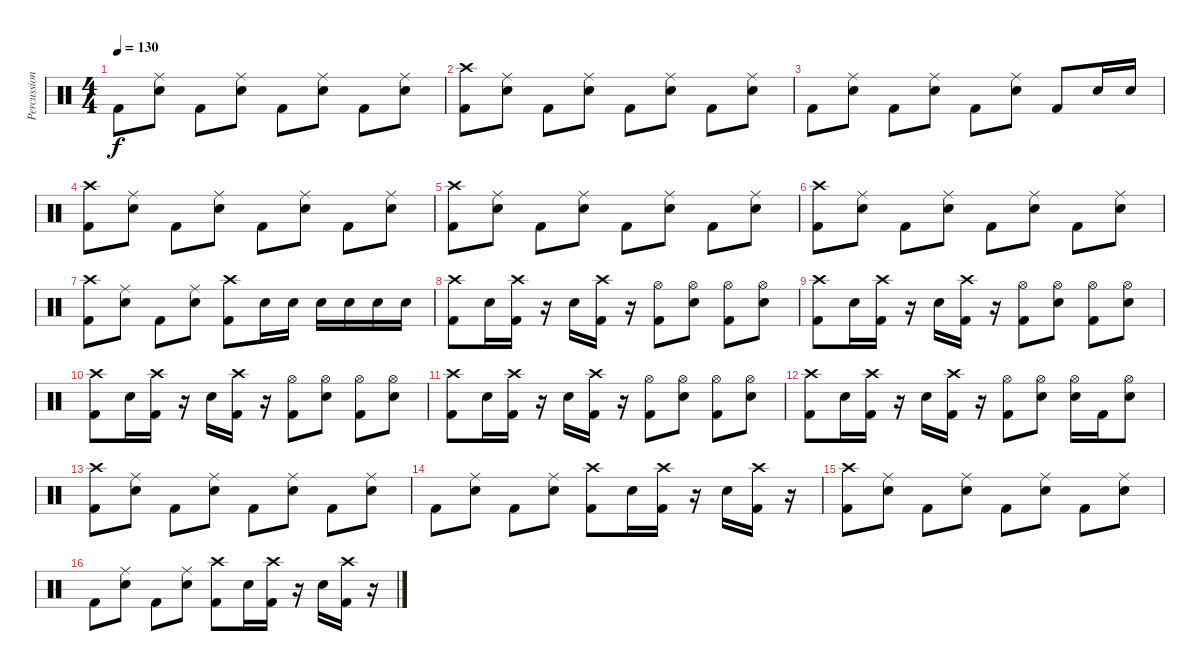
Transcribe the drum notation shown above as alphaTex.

\track ("Percussion" "Percussion") {instrument percussion}
\staff {score}
\articulation defaults
\ts (4 4)
\tempo 130
\clef neutral
\ks c "Kick (hit) 2".8{dy f}
("Ride (middle)" "Snare (hit) 2").8 "Kick (hit) 2".8 ("Ride (middle)" "Snare (hit) 2").8 "Kick (hit) 2".8 ("Ride (middle)" "Snare (hit) 2").8 "Kick (hit) 2".8 ("Ride (middle)" "Snare (hit) 2").8 |
("Crash high (hit)" "Kick (hit) 2").8 ("Ride (middle)" "Snare (hit) 2").8 "Kick (hit) 2".8 ("Ride (middle)" "Snare (hit) 2").8 "Kick (hit) 2".8 ("Ride (middle)" "Snare (hit) 2").8 "Kick (hit) 2".8 ("Ride (middle)" "Snare (hit) 2").8 |
"Kick (hit) 2".8 ("Ride (middle)" "Snare (hit) 2").8 "Kick (hit) 2".8 ("Ride (middle)" "Snare (hit) 2").8 "Kick (hit) 2".8 ("Ride (middle)" "Snare (hit) 2").8 "Kick (hit) 2".8 "Snare (hit) 2".16 "Snare (hit) 2".16 |
("Crash high (hit)" "Kick (hit) 2").8 ("Ride (middle)" "Snare (hit) 2").8 "Kick (hit) 2".8 ("Ride (middle)" "Snare (hit) 2").8 "Kick (hit) 2".8 ("Ride (middle)" "Snare (hit) 2").8 "Kick (hit) 2".8 ("Ride (middle)" "Snare (hit) 2").8 |
("Crash high (hit)" "Kick (hit) 2").8 ("Ride (middle)" "Snare (hit) 2").8 "Kick (hit) 2".8 ("Ride (middle)" "Snare (hit) 2").8 "Kick (hit) 2".8 ("Ride (middle)" "Snare (hit) 2").8 "Kick (hit) 2".8 ("Ride (middle)" "Snare (hit) 2").8 |
("Crash high (hit)" "Kick (hit) 2").8 ("Ride (middle)" "Snare (hit) 2").8 "Kick (hit) 2".8 ("Ride (middle)" "Snare (hit) 2").8 "Kick (hit) 2".8 ("Ride (middle)" "Snare (hit) 2").8 "Kick (hit) 2".8 ("Ride (middle)" "Snare (hit) 2").8 |
("Crash high (hit)" "Kick (hit) 2").8 ("Ride (middle)" "Snare (hit) 2").8 "Kick (hit) 2".8 ("Ride (middle)" "Snare (hit) 2").8 ("Crash high (hit)" "Kick (hit) 2").8 "Snare (hit) 2".16 "Snare (hit) 2".16 "Snare (hit) 2".16 "Snare (hit) 2".16 "Snare (hit) 2".16 "Snare (hit) 2".16 |
("Crash high (hit)" "Kick (hit) 2").8 "Snare (hit) 2".16 ("Crash high (hit)" "Kick (hit) 2").16 r.16 "Snare (hit) 2".16 ("Crash high (hit)" "Kick (hit) 2").16 r.16 ("Hi-Hat (open)" "Kick (hit) 2").8 ("Hi-Hat (open)" "Snare (hit) 2").8 ("Hi-Hat (open)" "Kick (hit) 2").8 ("Hi-Hat (open)" "Snare (hit) 2").8 |
("Crash high (hit)" "Kick (hit) 2").8 "Snare (hit) 2".16 ("Crash high (hit)" "Kick (hit) 2").16 r.16 "Snare (hit) 2".16 ("Crash high (hit)" "Kick (hit) 2").16 r.16 ("Hi-Hat (open)" "Kick (hit) 2").8 ("Hi-Hat (open)" "Snare (hit) 2").8 ("Hi-Hat (open)" "Kick (hit) 2").8 ("Hi-Hat (open)" "Snare (hit) 2").8 |
("Crash high (hit)" "Kick (hit) 2").8 "Snare (hit) 2".16 ("Crash high (hit)" "Kick (hit) 2").16 r.16 "Snare (hit) 2".16 ("Crash high (hit)" "Kick (hit) 2").16 r.16 ("Hi-Hat (open)" "Kick (hit) 2").8 ("Hi-Hat (open)" "Snare (hit) 2").8 ("Hi-Hat (open)" "Kick (hit) 2").8 ("Hi-Hat (open)" "Snare (hit) 2").8 |
("Crash high (hit)" "Kick (hit) 2").8 "Snare (hit) 2".16 ("Crash high (hit)" "Kick (hit) 2").16 r.16 "Snare (hit) 2".16 ("Crash high (hit)" "Kick (hit) 2").16 r.16 ("Hi-Hat (open)" "Kick (hit) 2").8 ("Hi-Hat (open)" "Snare (hit) 2").8 ("Hi-Hat (open)" "Kick (hit) 2").8 ("Hi-Hat (open)" "Snare (hit) 2").8 |
("Crash high (hit)" "Kick (hit) 2").8 "Snare (hit) 2".16 ("Crash high (hit)" "Kick (hit) 2").16 r.16 "Snare (hit) 2".16 ("Crash high (hit)" "Kick (hit) 2").16 r.16 ("Hi-Hat (open)" "Kick (hit) 2").8 ("Hi-Hat (open)" "Snare (hit) 2").8 ("Hi-Hat (open)" "Snare (hit) 2").16 "Kick (hit) 2".16 ("Hi-Hat (open)" "Snare (hit) 2").8 |
("Crash high (hit)" "Kick (hit) 2").8 ("Ride (middle)" "Snare (hit) 2").8 "Kick (hit) 2".8 ("Ride (middle)" "Snare (hit) 2").8 "Kick (hit) 2".8 ("Ride (middle)" "Snare (hit) 2").8 "Kick (hit) 2".8 ("Ride (middle)" "Snare (hit) 2").8 |
"Kick (hit) 2".8 ("Ride (middle)" "Snare (hit) 2").8 "Kick (hit) 2".8 ("Ride (middle)" "Snare (hit) 2").8 ("Crash high (hit)" "Kick (hit) 2").8 "Snare (hit) 2".16 ("Crash high (hit)" "Kick (hit) 2").16 r.16 "Snare (hit) 2".16 ("Crash high (hit)" "Kick (hit) 2").16 r.16 |
("Crash high (hit)" "Kick (hit) 2").8 ("Ride (middle)" "Snare (hit) 2").8 "Kick (hit) 2".8 ("Ride (middle)" "Snare (hit) 2").8 "Kick (hit) 2".8 ("Ride (middle)" "Snare (hit) 2").8 "Kick (hit) 2".8 ("Ride (middle)" "Snare (hit) 2").8 |
"Kick (hit) 2".8 ("Ride (middle)" "Snare (hit) 2").8 "Kick (hit) 2".8 ("Ride (middle)" "Snare (hit) 2").8 ("Crash high (hit)" "Kick (hit) 2").8 "Snare (hit) 2".16 ("Crash high (hit)" "Kick (hit) 2").16 r.16 "Snare (hit) 2".16 ("Crash high (hit)" "Kick (hit) 2").16 r.16
